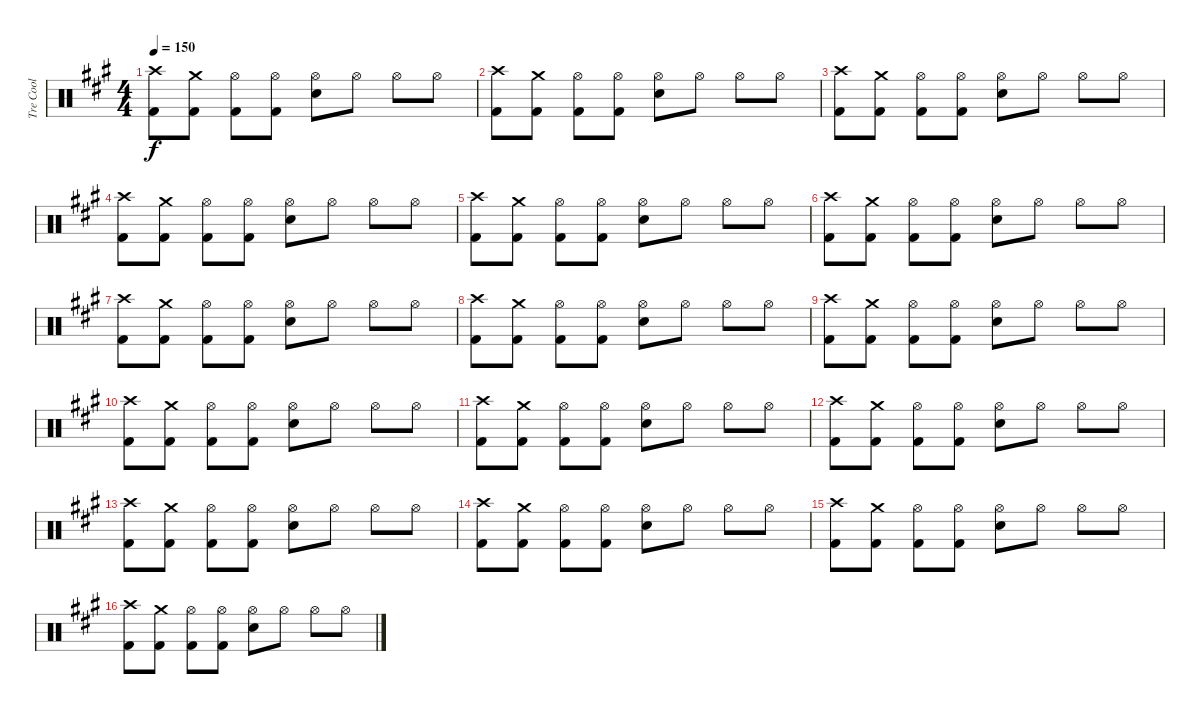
\track ("Tre Cool" "Tre Cool") {instrument percussion}
\staff {score}
\articulation defaults
\ts (4 4)
\tempo 150
\clef neutral
\ks a
("Crash high (hit)" "Kick (hit) 2").8{dy f} ("Crash medium (hit)" "Kick (hit) 2").8 ("Hi-Hat (open)" "Kick (hit) 2").8 ("Hi-Hat (open)" "Kick (hit) 2").8 ("Hi-Hat (open)" "Snare (hit) 2").8 "Hi-Hat (open)".8 "Hi-Hat (open)".8 "Hi-Hat (open)".8 |
("Crash high (hit)" "Kick (hit) 2").8 ("Crash medium (hit)" "Kick (hit) 2").8 ("Hi-Hat (open)" "Kick (hit) 2").8 ("Hi-Hat (open)" "Kick (hit) 2").8 ("Hi-Hat (open)" "Snare (hit) 2").8 "Hi-Hat (open)".8 "Hi-Hat (open)".8 "Hi-Hat (open)".8 |
("Crash high (hit)" "Kick (hit) 2").8 ("Crash medium (hit)" "Kick (hit) 2").8 ("Hi-Hat (open)" "Kick (hit) 2").8 ("Hi-Hat (open)" "Kick (hit) 2").8 ("Hi-Hat (open)" "Snare (hit) 2").8 "Hi-Hat (open)".8 "Hi-Hat (open)".8 "Hi-Hat (open)".8 |
("Crash high (hit)" "Kick (hit) 2").8 ("Crash medium (hit)" "Kick (hit) 2").8 ("Hi-Hat (open)" "Kick (hit) 2").8 ("Hi-Hat (open)" "Kick (hit) 2").8 ("Hi-Hat (open)" "Snare (hit) 2").8 "Hi-Hat (open)".8 "Hi-Hat (open)".8 "Hi-Hat (open)".8 |
("Crash high (hit)" "Kick (hit) 2").8 ("Crash medium (hit)" "Kick (hit) 2").8 ("Hi-Hat (open)" "Kick (hit) 2").8 ("Hi-Hat (open)" "Kick (hit) 2").8 ("Hi-Hat (open)" "Snare (hit) 2").8 "Hi-Hat (open)".8 "Hi-Hat (open)".8 "Hi-Hat (open)".8 |
("Crash high (hit)" "Kick (hit) 2").8 ("Crash medium (hit)" "Kick (hit) 2").8 ("Hi-Hat (open)" "Kick (hit) 2").8 ("Hi-Hat (open)" "Kick (hit) 2").8 ("Hi-Hat (open)" "Snare (hit) 2").8 "Hi-Hat (open)".8 "Hi-Hat (open)".8 "Hi-Hat (open)".8 |
("Crash high (hit)" "Kick (hit) 2").8 ("Crash medium (hit)" "Kick (hit) 2").8 ("Hi-Hat (open)" "Kick (hit) 2").8 ("Hi-Hat (open)" "Kick (hit) 2").8 ("Hi-Hat (open)" "Snare (hit) 2").8 "Hi-Hat (open)".8 "Hi-Hat (open)".8 "Hi-Hat (open)".8 |
("Crash high (hit)" "Kick (hit) 2").8 ("Crash medium (hit)" "Kick (hit) 2").8 ("Hi-Hat (open)" "Kick (hit) 2").8 ("Hi-Hat (open)" "Kick (hit) 2").8 ("Hi-Hat (open)" "Snare (hit) 2").8 "Hi-Hat (open)".8 "Hi-Hat (open)".8 "Hi-Hat (open)".8 |
("Crash high (hit)" "Kick (hit) 2").8 ("Crash medium (hit)" "Kick (hit) 2").8 ("Hi-Hat (open)" "Kick (hit) 2").8 ("Hi-Hat (open)" "Kick (hit) 2").8 ("Hi-Hat (open)" "Snare (hit) 2").8 "Hi-Hat (open)".8 "Hi-Hat (open)".8 "Hi-Hat (open)".8 |
("Crash high (hit)" "Kick (hit) 2").8 ("Crash medium (hit)" "Kick (hit) 2").8 ("Hi-Hat (open)" "Kick (hit) 2").8 ("Hi-Hat (open)" "Kick (hit) 2").8 ("Hi-Hat (open)" "Snare (hit) 2").8 "Hi-Hat (open)".8 "Hi-Hat (open)".8 "Hi-Hat (open)".8 |
("Crash high (hit)" "Kick (hit) 2").8 ("Crash medium (hit)" "Kick (hit) 2").8 ("Hi-Hat (open)" "Kick (hit) 2").8 ("Hi-Hat (open)" "Kick (hit) 2").8 ("Hi-Hat (open)" "Snare (hit) 2").8 "Hi-Hat (open)".8 "Hi-Hat (open)".8 "Hi-Hat (open)".8 |
("Crash high (hit)" "Kick (hit) 2").8 ("Crash medium (hit)" "Kick (hit) 2").8 ("Hi-Hat (open)" "Kick (hit) 2").8 ("Hi-Hat (open)" "Kick (hit) 2").8 ("Hi-Hat (open)" "Snare (hit) 2").8 "Hi-Hat (open)".8 "Hi-Hat (open)".8 "Hi-Hat (open)".8 |
("Crash high (hit)" "Kick (hit) 2").8 ("Crash medium (hit)" "Kick (hit) 2").8 ("Hi-Hat (open)" "Kick (hit) 2").8 ("Hi-Hat (open)" "Kick (hit) 2").8 ("Hi-Hat (open)" "Snare (hit) 2").8 "Hi-Hat (open)".8 "Hi-Hat (open)".8 "Hi-Hat (open)".8 |
("Crash high (hit)" "Kick (hit) 2").8 ("Crash medium (hit)" "Kick (hit) 2").8 ("Hi-Hat (open)" "Kick (hit) 2").8 ("Hi-Hat (open)" "Kick (hit) 2").8 ("Hi-Hat (open)" "Snare (hit) 2").8 "Hi-Hat (open)".8 "Hi-Hat (open)".8 "Hi-Hat (open)".8 |
("Crash high (hit)" "Kick (hit) 2").8 ("Crash medium (hit)" "Kick (hit) 2").8 ("Hi-Hat (open)" "Kick (hit) 2").8 ("Hi-Hat (open)" "Kick (hit) 2").8 ("Hi-Hat (open)" "Snare (hit) 2").8 "Hi-Hat (open)".8 "Hi-Hat (open)".8 "Hi-Hat (open)".8 |
("Crash high (hit)" "Kick (hit) 2").8 ("Crash medium (hit)" "Kick (hit) 2").8 ("Hi-Hat (open)" "Kick (hit) 2").8 ("Hi-Hat (open)" "Kick (hit) 2").8 ("Hi-Hat (open)" "Snare (hit) 2").8 "Hi-Hat (open)".8 "Hi-Hat (open)".8 "Hi-Hat (open)".8
